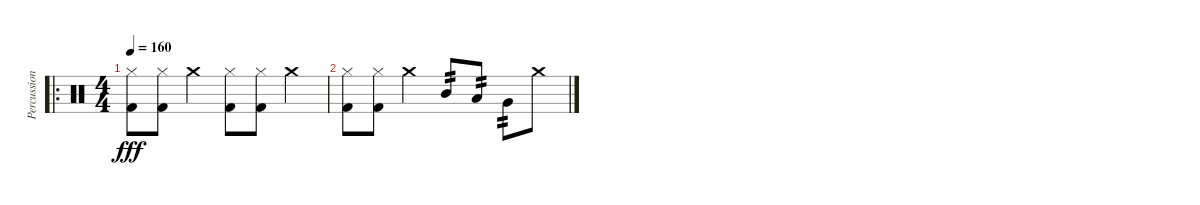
\track ("Percussion" "Percussion") {instrument percussion}
\staff {score}
\articulation defaults
\ro
\ts (4 4)
\tempo 160
\clef neutral
\ks c
("Kick (hit) 2" "Hi-Hat (closed)").8{dy fff} ("Kick (hit) 2" "Hi-Hat (closed)").8 "Crash medium (hit)".4 ("Kick (hit) 2" "Hi-Hat (closed)").8 ("Kick (hit) 2" "Hi-Hat (closed)").8 "Crash medium (hit)".4 |
("Kick (hit) 2" "Hi-Hat (closed)").8 ("Kick (hit) 2" "Hi-Hat (closed)").8 "Crash medium (hit)".4 "Mid Tom (hit)".8{tp 2} "Low Tom (hit)".8{tp 2} "Very Low Tom (hit)".8{tp 2} "Crash medium (hit)".8
